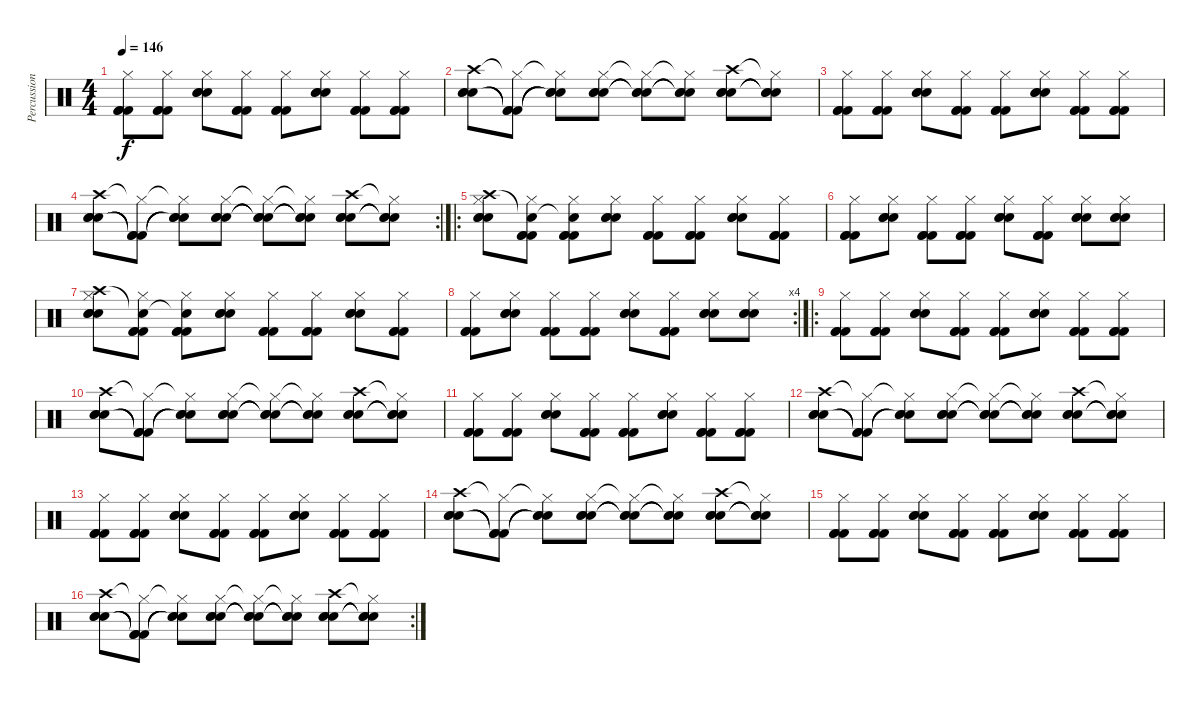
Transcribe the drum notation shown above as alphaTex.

\track ("Percussion" "Percussion") {instrument percussion}
\staff {score}
\articulation defaults
\ts (4 4)
\tempo 146
\clef neutral
\ks c
("Hi-Hat (closed)" "Kick (hit) 2" "Kick (hit) 2" "Kick (hit) 2").8{dy f} ("Hi-Hat (closed)" "Kick (hit) 2" "Kick (hit) 2" "Kick (hit) 2").8 ("Hi-Hat (closed)" "Snare (hit) 2" "Snare (hit) 2" "Snare (hit) 2").8 ("Hi-Hat (closed)" "Kick (hit) 2" "Kick (hit) 2" "Kick (hit) 2").8 ("Hi-Hat (closed)" "Kick (hit) 2" "Kick (hit) 2" "Kick (hit) 2").8 ("Hi-Hat (closed)" "Snare (hit) 2" "Snare (hit) 2" "Snare (hit) 2").8 ("Hi-Hat (closed)" "Kick (hit) 2" "Kick (hit) 2" "Kick (hit) 2").8 ("Hi-Hat (closed)" "Kick (hit) 2" "Kick (hit) 2" "Kick (hit) 2").8 |
("Crash high (hit)" "Snare (hit) 2" "Snare (hit) 2" "Snare (hit) 2").8 ("Hi-Hat (closed)"{t} "Kick (hit) 2"{t} "Kick (hit) 2"{t} "Kick (hit) 2"{t}).8 ("Hi-Hat (closed)"{t} "Snare (hit) 2"{t} "Snare (hit) 2"{t} "Snare (hit) 2"{t}).8 ("Hi-Hat (closed)" "Snare (hit) 2" "Snare (hit) 2" "Snare (hit) 2").8 ("Hi-Hat (closed)"{t} "Snare (hit) 2"{t} "Snare (hit) 2"{t} "Snare (hit) 2"{t}).8 ("Hi-Hat (closed)"{t} "Snare (hit) 2"{t} "Snare (hit) 2"{t} "Snare (hit) 2"{t}).8 ("Crash high (hit)" "Snare (hit) 2" "Snare (hit) 2" "Snare (hit) 2").8 ("Hi-Hat (closed)"{t} "Snare (hit) 2"{t} "Snare (hit) 2"{t} "Snare (hit) 2"{t}).8 |
("Hi-Hat (closed)" "Kick (hit) 2" "Kick (hit) 2" "Kick (hit) 2").8 ("Hi-Hat (closed)" "Kick (hit) 2" "Kick (hit) 2" "Kick (hit) 2").8 ("Hi-Hat (closed)" "Snare (hit) 2" "Snare (hit) 2" "Snare (hit) 2").8 ("Hi-Hat (closed)" "Kick (hit) 2" "Kick (hit) 2" "Kick (hit) 2").8 ("Hi-Hat (closed)" "Kick (hit) 2" "Kick (hit) 2" "Kick (hit) 2").8 ("Hi-Hat (closed)" "Snare (hit) 2" "Snare (hit) 2" "Snare (hit) 2").8 ("Hi-Hat (closed)" "Kick (hit) 2" "Kick (hit) 2" "Kick (hit) 2").8 ("Hi-Hat (closed)" "Kick (hit) 2" "Kick (hit) 2" "Kick (hit) 2").8 |
\rc 2
("Crash high (hit)" "Snare (hit) 2" "Snare (hit) 2" "Snare (hit) 2").8 ("Hi-Hat (closed)"{t} "Kick (hit) 2"{t} "Kick (hit) 2"{t} "Kick (hit) 2"{t}).8 ("Hi-Hat (closed)"{t} "Snare (hit) 2"{t} "Snare (hit) 2"{t} "Snare (hit) 2"{t}).8 ("Hi-Hat (closed)" "Snare (hit) 2" "Snare (hit) 2" "Snare (hit) 2").8 ("Hi-Hat (closed)"{t} "Snare (hit) 2"{t} "Snare (hit) 2"{t} "Snare (hit) 2"{t}).8 ("Hi-Hat (closed)"{t} "Snare (hit) 2"{t} "Snare (hit) 2"{t} "Snare (hit) 2"{t}).8 ("Crash high (hit)" "Snare (hit) 2" "Snare (hit) 2" "Snare (hit) 2").8 ("Hi-Hat (closed)"{t} "Snare (hit) 2"{t} "Snare (hit) 2"{t} "Snare (hit) 2"{t}).8 |
\ro
("Crash high (hit)" "Hi-Hat (closed)" "Snare (hit) 2" "Snare (hit) 2" "Snare (hit) 2").8 ("Snare (hit)"{t} "Hi-Hat (closed)" "Kick (hit) 2" "Kick (hit) 2" "Kick (hit) 2").8 ("Snare (hit)"{t} "Hi-Hat (closed)" "Kick (hit) 2" "Kick (hit) 2" "Kick (hit) 2").8 ("Hi-Hat (closed)" "Snare (hit) 2" "Snare (hit) 2" "Snare (hit) 2").8 ("Hi-Hat (closed)" "Kick (hit) 2" "Kick (hit) 2" "Kick (hit) 2").8 ("Hi-Hat (closed)" "Kick (hit) 2" "Kick (hit) 2" "Kick (hit) 2").8 ("Hi-Hat (closed)" "Snare (hit) 2" "Snare (hit) 2" "Snare (hit) 2").8 ("Hi-Hat (closed)" "Kick (hit) 2" "Kick (hit) 2" "Kick (hit) 2").8 |
("Hi-Hat (closed)" "Kick (hit) 2" "Kick (hit) 2" "Kick (hit) 2").8 ("Hi-Hat (closed)" "Snare (hit) 2" "Snare (hit) 2" "Snare (hit) 2").8 ("Hi-Hat (closed)" "Kick (hit) 2" "Kick (hit) 2" "Kick (hit) 2").8 ("Hi-Hat (closed)" "Kick (hit) 2" "Kick (hit) 2" "Kick (hit) 2").8 ("Hi-Hat (closed)" "Snare (hit) 2" "Snare (hit) 2" "Snare (hit) 2").8 ("Hi-Hat (closed)" "Kick (hit) 2" "Kick (hit) 2" "Kick (hit) 2").8 ("Hi-Hat (closed)" "Snare (hit) 2" "Snare (hit) 2" "Snare (hit) 2").8 ("Hi-Hat (closed)" "Snare (hit) 2" "Snare (hit) 2" "Snare (hit) 2").8 |
("Crash high (hit)" "Hi-Hat (closed)" "Snare (hit) 2" "Snare (hit) 2" "Snare (hit) 2").8 ("Snare (hit)"{t} "Hi-Hat (closed)" "Kick (hit) 2" "Kick (hit) 2" "Kick (hit) 2").8 ("Snare (hit)"{t} "Hi-Hat (closed)" "Kick (hit) 2" "Kick (hit) 2" "Kick (hit) 2").8 ("Hi-Hat (closed)" "Snare (hit) 2" "Snare (hit) 2" "Snare (hit) 2").8 ("Hi-Hat (closed)" "Kick (hit) 2" "Kick (hit) 2" "Kick (hit) 2").8 ("Hi-Hat (closed)" "Kick (hit) 2" "Kick (hit) 2" "Kick (hit) 2").8 ("Hi-Hat (closed)" "Snare (hit) 2" "Snare (hit) 2" "Snare (hit) 2").8 ("Hi-Hat (closed)" "Kick (hit) 2" "Kick (hit) 2" "Kick (hit) 2").8 |
\rc 4
("Hi-Hat (closed)" "Kick (hit) 2" "Kick (hit) 2" "Kick (hit) 2").8 ("Hi-Hat (closed)" "Snare (hit) 2" "Snare (hit) 2" "Snare (hit) 2").8 ("Hi-Hat (closed)" "Kick (hit) 2" "Kick (hit) 2" "Kick (hit) 2").8 ("Hi-Hat (closed)" "Kick (hit) 2" "Kick (hit) 2" "Kick (hit) 2").8 ("Hi-Hat (closed)" "Snare (hit) 2" "Snare (hit) 2" "Snare (hit) 2").8 ("Hi-Hat (closed)" "Kick (hit) 2" "Kick (hit) 2" "Kick (hit) 2").8 ("Hi-Hat (closed)" "Snare (hit) 2" "Snare (hit) 2" "Snare (hit) 2").8 ("Hi-Hat (closed)" "Snare (hit) 2" "Snare (hit) 2" "Snare (hit) 2").8 |
\ro
("Hi-Hat (closed)" "Kick (hit) 2" "Kick (hit) 2" "Kick (hit) 2").8 ("Hi-Hat (closed)" "Kick (hit) 2" "Kick (hit) 2" "Kick (hit) 2").8 ("Hi-Hat (closed)" "Snare (hit) 2" "Snare (hit) 2" "Snare (hit) 2").8 ("Hi-Hat (closed)" "Kick (hit) 2" "Kick (hit) 2" "Kick (hit) 2").8 ("Hi-Hat (closed)" "Kick (hit) 2" "Kick (hit) 2" "Kick (hit) 2").8 ("Hi-Hat (closed)" "Snare (hit) 2" "Snare (hit) 2" "Snare (hit) 2").8 ("Hi-Hat (closed)" "Kick (hit) 2" "Kick (hit) 2" "Kick (hit) 2").8 ("Hi-Hat (closed)" "Kick (hit) 2" "Kick (hit) 2" "Kick (hit) 2").8 |
("Crash high (hit)" "Snare (hit) 2" "Snare (hit) 2" "Snare (hit) 2").8 ("Hi-Hat (closed)"{t} "Kick (hit) 2"{t} "Kick (hit) 2"{t} "Kick (hit) 2"{t}).8 ("Hi-Hat (closed)"{t} "Snare (hit) 2"{t} "Snare (hit) 2"{t} "Snare (hit) 2"{t}).8 ("Hi-Hat (closed)" "Snare (hit) 2" "Snare (hit) 2" "Snare (hit) 2").8 ("Hi-Hat (closed)"{t} "Snare (hit) 2"{t} "Snare (hit) 2"{t} "Snare (hit) 2"{t}).8 ("Hi-Hat (closed)"{t} "Snare (hit) 2"{t} "Snare (hit) 2"{t} "Snare (hit) 2"{t}).8 ("Crash high (hit)" "Snare (hit) 2" "Snare (hit) 2" "Snare (hit) 2").8 ("Hi-Hat (closed)"{t} "Snare (hit) 2"{t} "Snare (hit) 2"{t} "Snare (hit) 2"{t}).8 |
("Hi-Hat (closed)" "Kick (hit) 2" "Kick (hit) 2" "Kick (hit) 2").8 ("Hi-Hat (closed)" "Kick (hit) 2" "Kick (hit) 2" "Kick (hit) 2").8 ("Hi-Hat (closed)" "Snare (hit) 2" "Snare (hit) 2" "Snare (hit) 2").8 ("Hi-Hat (closed)" "Kick (hit) 2" "Kick (hit) 2" "Kick (hit) 2").8 ("Hi-Hat (closed)" "Kick (hit) 2" "Kick (hit) 2" "Kick (hit) 2").8 ("Hi-Hat (closed)" "Snare (hit) 2" "Snare (hit) 2" "Snare (hit) 2").8 ("Hi-Hat (closed)" "Kick (hit) 2" "Kick (hit) 2" "Kick (hit) 2").8 ("Hi-Hat (closed)" "Kick (hit) 2" "Kick (hit) 2" "Kick (hit) 2").8 |
("Crash high (hit)" "Snare (hit) 2" "Snare (hit) 2" "Snare (hit) 2").8 ("Hi-Hat (closed)"{t} "Kick (hit) 2"{t} "Kick (hit) 2"{t} "Kick (hit) 2"{t}).8 ("Hi-Hat (closed)"{t} "Snare (hit) 2"{t} "Snare (hit) 2"{t} "Snare (hit) 2"{t}).8 ("Hi-Hat (closed)" "Snare (hit) 2" "Snare (hit) 2" "Snare (hit) 2").8 ("Hi-Hat (closed)"{t} "Snare (hit) 2"{t} "Snare (hit) 2"{t} "Snare (hit) 2"{t}).8 ("Hi-Hat (closed)"{t} "Snare (hit) 2"{t} "Snare (hit) 2"{t} "Snare (hit) 2"{t}).8 ("Crash high (hit)" "Snare (hit) 2" "Snare (hit) 2" "Snare (hit) 2").8 ("Hi-Hat (closed)"{t} "Snare (hit) 2"{t} "Snare (hit) 2"{t} "Snare (hit) 2"{t}).8 |
("Hi-Hat (closed)" "Kick (hit) 2" "Kick (hit) 2" "Kick (hit) 2").8 ("Hi-Hat (closed)" "Kick (hit) 2" "Kick (hit) 2" "Kick (hit) 2").8 ("Hi-Hat (closed)" "Snare (hit) 2" "Snare (hit) 2" "Snare (hit) 2").8 ("Hi-Hat (closed)" "Kick (hit) 2" "Kick (hit) 2" "Kick (hit) 2").8 ("Hi-Hat (closed)" "Kick (hit) 2" "Kick (hit) 2" "Kick (hit) 2").8 ("Hi-Hat (closed)" "Snare (hit) 2" "Snare (hit) 2" "Snare (hit) 2").8 ("Hi-Hat (closed)" "Kick (hit) 2" "Kick (hit) 2" "Kick (hit) 2").8 ("Hi-Hat (closed)" "Kick (hit) 2" "Kick (hit) 2" "Kick (hit) 2").8 |
("Crash high (hit)" "Snare (hit) 2" "Snare (hit) 2" "Snare (hit) 2").8 ("Hi-Hat (closed)"{t} "Kick (hit) 2"{t} "Kick (hit) 2"{t} "Kick (hit) 2"{t}).8 ("Hi-Hat (closed)"{t} "Snare (hit) 2"{t} "Snare (hit) 2"{t} "Snare (hit) 2"{t}).8 ("Hi-Hat (closed)" "Snare (hit) 2" "Snare (hit) 2" "Snare (hit) 2").8 ("Hi-Hat (closed)"{t} "Snare (hit) 2"{t} "Snare (hit) 2"{t} "Snare (hit) 2"{t}).8 ("Hi-Hat (closed)"{t} "Snare (hit) 2"{t} "Snare (hit) 2"{t} "Snare (hit) 2"{t}).8 ("Crash high (hit)" "Snare (hit) 2" "Snare (hit) 2" "Snare (hit) 2").8 ("Hi-Hat (closed)"{t} "Snare (hit) 2"{t} "Snare (hit) 2"{t} "Snare (hit) 2"{t}).8 |
("Hi-Hat (closed)" "Kick (hit) 2" "Kick (hit) 2" "Kick (hit) 2").8 ("Hi-Hat (closed)" "Kick (hit) 2" "Kick (hit) 2" "Kick (hit) 2").8 ("Hi-Hat (closed)" "Snare (hit) 2" "Snare (hit) 2" "Snare (hit) 2").8 ("Hi-Hat (closed)" "Kick (hit) 2" "Kick (hit) 2" "Kick (hit) 2").8 ("Hi-Hat (closed)" "Kick (hit) 2" "Kick (hit) 2" "Kick (hit) 2").8 ("Hi-Hat (closed)" "Snare (hit) 2" "Snare (hit) 2" "Snare (hit) 2").8 ("Hi-Hat (closed)" "Kick (hit) 2" "Kick (hit) 2" "Kick (hit) 2").8 ("Hi-Hat (closed)" "Kick (hit) 2" "Kick (hit) 2" "Kick (hit) 2").8 |
\rc 2
("Crash high (hit)" "Snare (hit) 2" "Snare (hit) 2" "Snare (hit) 2").8 ("Hi-Hat (closed)"{t} "Kick (hit) 2"{t} "Kick (hit) 2"{t} "Kick (hit) 2"{t}).8 ("Hi-Hat (closed)"{t} "Snare (hit) 2"{t} "Snare (hit) 2"{t} "Snare (hit) 2"{t}).8 ("Hi-Hat (closed)" "Snare (hit) 2" "Snare (hit) 2" "Snare (hit) 2").8 ("Hi-Hat (closed)"{t} "Snare (hit) 2"{t} "Snare (hit) 2"{t} "Snare (hit) 2"{t}).8 ("Hi-Hat (closed)"{t} "Snare (hit) 2"{t} "Snare (hit) 2"{t} "Snare (hit) 2"{t}).8 ("Crash high (hit)" "Snare (hit) 2" "Snare (hit) 2" "Snare (hit) 2").8 ("Hi-Hat (closed)"{t} "Snare (hit) 2"{t} "Snare (hit) 2"{t} "Snare (hit) 2"{t}).8
